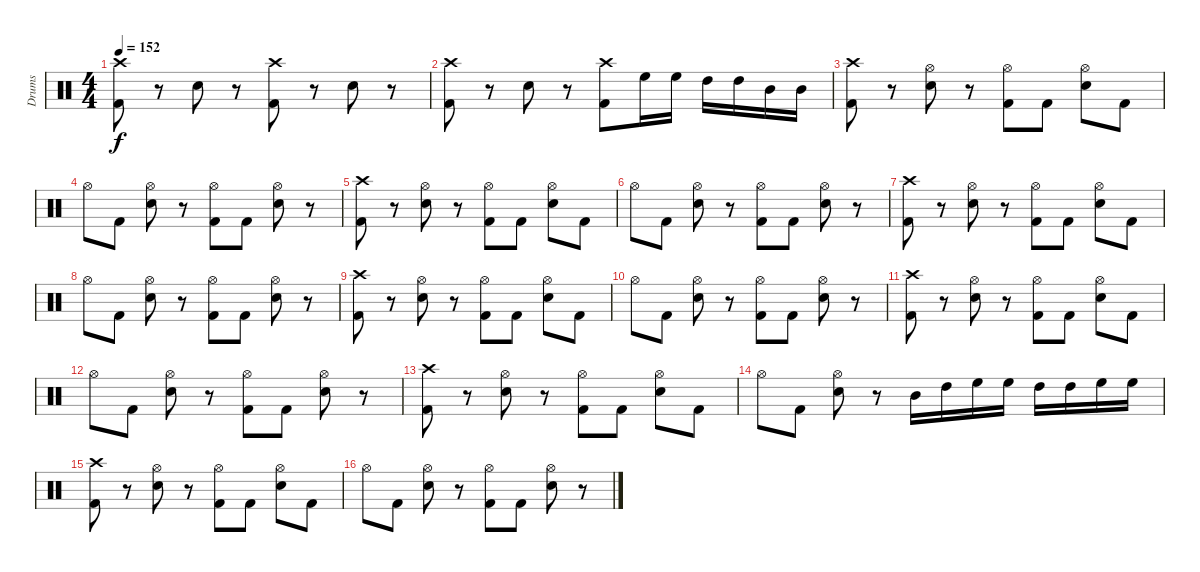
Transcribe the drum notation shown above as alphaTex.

\track ("Drums" "Drums") {instrument percussion}
\staff {score}
\articulation defaults
\ts (4 4)
\tempo 152
\clef neutral
\ks c
("Crash high (hit)" "Kick (hit) 2").8{dy f} r.8 "Snare (hit) 2".8 r.8 ("Crash high (hit)" "Kick (hit) 2").8 r.8 "Snare (hit) 2".8 r.8 |
("Crash high (hit)" "Kick (hit) 2").8 r.8 "Snare (hit) 2".8 r.8 ("Crash high (hit)" "Kick (hit) 2").8 "High Floor Tom (hit)".16 "High Floor Tom (hit)".16 "High Tom (hit)".16 "High Tom (hit)".16 "Mid Tom (hit)".16 "Mid Tom (hit)".16 |
("Crash high (hit)" "Kick (hit) 2").8 r.8 ("Hi-Hat (open)" "Snare (hit) 2").8 r.8 ("Hi-Hat (open)" "Kick (hit) 2").8 "Kick (hit) 2".8 ("Hi-Hat (open)" "Snare (hit) 2").8 "Kick (hit) 2".8 |
"Hi-Hat (open)".8 "Kick (hit) 2".8 ("Hi-Hat (open)" "Snare (hit) 2").8 r.8 ("Hi-Hat (open)" "Kick (hit) 2").8 "Kick (hit) 2".8 ("Hi-Hat (open)" "Snare (hit) 2").8 r.8 |
("Crash high (hit)" "Kick (hit) 2").8 r.8 ("Hi-Hat (open)" "Snare (hit) 2").8 r.8 ("Hi-Hat (open)" "Kick (hit) 2").8 "Kick (hit) 2".8 ("Hi-Hat (open)" "Snare (hit) 2").8 "Kick (hit) 2".8 |
"Hi-Hat (open)".8 "Kick (hit) 2".8 ("Hi-Hat (open)" "Snare (hit) 2").8 r.8 ("Hi-Hat (open)" "Kick (hit) 2").8 "Kick (hit) 2".8 ("Hi-Hat (open)" "Snare (hit) 2").8 r.8 |
("Crash high (hit)" "Kick (hit) 2").8 r.8 ("Hi-Hat (open)" "Snare (hit) 2").8 r.8 ("Hi-Hat (open)" "Kick (hit) 2").8 "Kick (hit) 2".8 ("Hi-Hat (open)" "Snare (hit) 2").8 "Kick (hit) 2".8 |
"Hi-Hat (open)".8 "Kick (hit) 2".8 ("Hi-Hat (open)" "Snare (hit) 2").8 r.8 ("Hi-Hat (open)" "Kick (hit) 2").8 "Kick (hit) 2".8 ("Hi-Hat (open)" "Snare (hit) 2").8 r.8 |
("Crash high (hit)" "Kick (hit) 2").8 r.8 ("Hi-Hat (open)" "Snare (hit) 2").8 r.8 ("Hi-Hat (open)" "Kick (hit) 2").8 "Kick (hit) 2".8 ("Hi-Hat (open)" "Snare (hit) 2").8 "Kick (hit) 2".8 |
"Hi-Hat (open)".8 "Kick (hit) 2".8 ("Hi-Hat (open)" "Snare (hit) 2").8 r.8 ("Hi-Hat (open)" "Kick (hit) 2").8 "Kick (hit) 2".8 ("Hi-Hat (open)" "Snare (hit) 2").8 r.8 |
("Crash high (hit)" "Kick (hit) 2").8 r.8 ("Hi-Hat (open)" "Snare (hit) 2").8 r.8 ("Hi-Hat (open)" "Kick (hit) 2").8 "Kick (hit) 2".8 ("Hi-Hat (open)" "Snare (hit) 2").8 "Kick (hit) 2".8 |
"Hi-Hat (open)".8 "Kick (hit) 2".8 ("Hi-Hat (open)" "Snare (hit) 2").8 r.8 ("Hi-Hat (open)" "Kick (hit) 2").8 "Kick (hit) 2".8 ("Hi-Hat (open)" "Snare (hit) 2").8 r.8 |
("Crash high (hit)" "Kick (hit) 2").8 r.8 ("Hi-Hat (open)" "Snare (hit) 2").8 r.8 ("Hi-Hat (open)" "Kick (hit) 2").8 "Kick (hit) 2".8 ("Hi-Hat (open)" "Snare (hit) 2").8 "Kick (hit) 2".8 |
"Hi-Hat (open)".8 "Kick (hit) 2".8 ("Hi-Hat (open)" "Snare (hit) 2").8 r.8 "Mid Tom (hit)".16 "High Tom (hit)".16 "High Floor Tom (hit)".16 "High Floor Tom (hit)".16 "High Tom (hit)".16 "High Tom (hit)".16 "High Floor Tom (hit)".16 "High Floor Tom (hit)".16 |
("Crash high (hit)" "Kick (hit) 2").8 r.8 ("Hi-Hat (open)" "Snare (hit) 2").8 r.8 ("Hi-Hat (open)" "Kick (hit) 2").8 "Kick (hit) 2".8 ("Hi-Hat (open)" "Snare (hit) 2").8 "Kick (hit) 2".8 |
"Hi-Hat (open)".8 "Kick (hit) 2".8 ("Hi-Hat (open)" "Snare (hit) 2").8 r.8 ("Hi-Hat (open)" "Kick (hit) 2").8 "Kick (hit) 2".8 ("Hi-Hat (open)" "Snare (hit) 2").8 r.8
